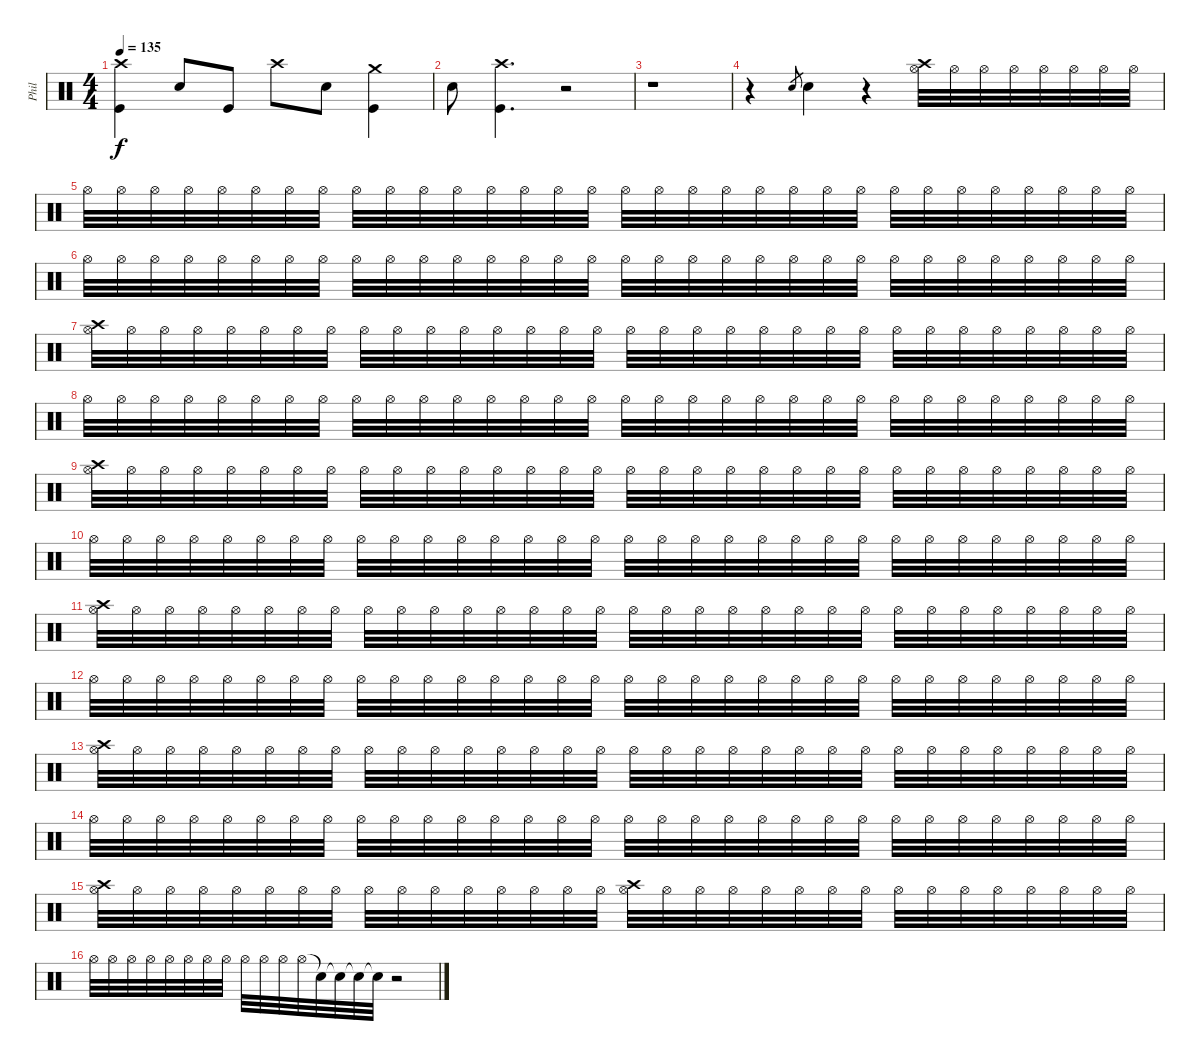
\track ("Phil" "Phil") {instrument percussion}
\staff {score}
\articulation defaults
\ts (4 4)
\tempo 135
\clef neutral
\ks c
("Kick (hit)" "Crash high (hit)").4{dy f} "Snare (hit) 2".8 "Kick (hit)".8 "Crash high (hit)".8 "Snare (hit) 2".8 ("Kick (hit)" "Crash medium (hit)").4 |
"Snare (hit) 2".8 ("Crash high (hit)" "Kick (hit)").4{d} r.2 |
r.1 |
r.4 "Snare (hit) 2".8{gr} "Snare (hit) 2".4 r.4 ("Crash high (hit)" "Hi-Hat (open)").32 "Hi-Hat (open)".32 "Hi-Hat (open)".32 "Hi-Hat (open)".32 "Hi-Hat (open)".32 "Hi-Hat (open)".32 "Hi-Hat (open)".32 "Hi-Hat (open)".32 |
"Hi-Hat (open)".32 "Hi-Hat (open)".32 "Hi-Hat (open)".32 "Hi-Hat (open)".32 "Hi-Hat (open)".32 "Hi-Hat (open)".32 "Hi-Hat (open)".32 "Hi-Hat (open)".32 "Hi-Hat (open)".32 "Hi-Hat (open)".32 "Hi-Hat (open)".32 "Hi-Hat (open)".32 "Hi-Hat (open)".32 "Hi-Hat (open)".32 "Hi-Hat (open)".32 "Hi-Hat (open)".32 "Hi-Hat (open)".32 "Hi-Hat (open)".32 "Hi-Hat (open)".32 "Hi-Hat (open)".32 "Hi-Hat (open)".32 "Hi-Hat (open)".32 "Hi-Hat (open)".32 "Hi-Hat (open)".32 "Hi-Hat (open)".32 "Hi-Hat (open)".32 "Hi-Hat (open)".32 "Hi-Hat (open)".32 "Hi-Hat (open)".32 "Hi-Hat (open)".32 "Hi-Hat (open)".32 "Hi-Hat (open)".32 |
"Hi-Hat (open)".32{volume 5} "Hi-Hat (open)".32{volume 16} "Hi-Hat (open)".32 "Hi-Hat (open)".32 "Hi-Hat (open)".32 "Hi-Hat (open)".32 "Hi-Hat (open)".32 "Hi-Hat (open)".32 "Hi-Hat (open)".32 "Hi-Hat (open)".32 "Hi-Hat (open)".32 "Hi-Hat (open)".32 "Hi-Hat (open)".32 "Hi-Hat (open)".32 "Hi-Hat (open)".32 "Hi-Hat (open)".32 "Hi-Hat (open)".32 "Hi-Hat (open)".32 "Hi-Hat (open)".32 "Hi-Hat (open)".32 "Hi-Hat (open)".32 "Hi-Hat (open)".32 "Hi-Hat (open)".32 "Hi-Hat (open)".32 "Hi-Hat (open)".32 "Hi-Hat (open)".32 "Hi-Hat (open)".32 "Hi-Hat (open)".32 "Hi-Hat (open)".32 "Hi-Hat (open)".32 "Hi-Hat (open)".32 "Hi-Hat (open)".32 |
("Crash high (hit)" "Hi-Hat (open)").32 "Hi-Hat (open)".32 "Hi-Hat (open)".32 "Hi-Hat (open)".32 "Hi-Hat (open)".32 "Hi-Hat (open)".32 "Hi-Hat (open)".32 "Hi-Hat (open)".32 "Hi-Hat (open)".32 "Hi-Hat (open)".32 "Hi-Hat (open)".32 "Hi-Hat (open)".32 "Hi-Hat (open)".32 "Hi-Hat (open)".32 "Hi-Hat (open)".32 "Hi-Hat (open)".32 "Hi-Hat (open)".32 "Hi-Hat (open)".32 "Hi-Hat (open)".32 "Hi-Hat (open)".32 "Hi-Hat (open)".32 "Hi-Hat (open)".32 "Hi-Hat (open)".32 "Hi-Hat (open)".32 "Hi-Hat (open)".32 "Hi-Hat (open)".32 "Hi-Hat (open)".32 "Hi-Hat (open)".32 "Hi-Hat (open)".32 "Hi-Hat (open)".32 "Hi-Hat (open)".32 "Hi-Hat (open)".32 |
"Hi-Hat (open)".32{volume 5} "Hi-Hat (open)".32{volume 16} "Hi-Hat (open)".32 "Hi-Hat (open)".32 "Hi-Hat (open)".32 "Hi-Hat (open)".32 "Hi-Hat (open)".32 "Hi-Hat (open)".32 "Hi-Hat (open)".32 "Hi-Hat (open)".32 "Hi-Hat (open)".32 "Hi-Hat (open)".32 "Hi-Hat (open)".32 "Hi-Hat (open)".32 "Hi-Hat (open)".32 "Hi-Hat (open)".32 "Hi-Hat (open)".32 "Hi-Hat (open)".32 "Hi-Hat (open)".32 "Hi-Hat (open)".32 "Hi-Hat (open)".32 "Hi-Hat (open)".32 "Hi-Hat (open)".32 "Hi-Hat (open)".32 "Hi-Hat (open)".32 "Hi-Hat (open)".32 "Hi-Hat (open)".32 "Hi-Hat (open)".32 "Hi-Hat (open)".32 "Hi-Hat (open)".32 "Hi-Hat (open)".32 "Hi-Hat (open)".32 |
("Crash high (hit)" "Hi-Hat (open)").32 "Hi-Hat (open)".32 "Hi-Hat (open)".32 "Hi-Hat (open)".32 "Hi-Hat (open)".32 "Hi-Hat (open)".32 "Hi-Hat (open)".32 "Hi-Hat (open)".32 "Hi-Hat (open)".32 "Hi-Hat (open)".32 "Hi-Hat (open)".32 "Hi-Hat (open)".32 "Hi-Hat (open)".32 "Hi-Hat (open)".32 "Hi-Hat (open)".32 "Hi-Hat (open)".32 "Hi-Hat (open)".32 "Hi-Hat (open)".32 "Hi-Hat (open)".32 "Hi-Hat (open)".32 "Hi-Hat (open)".32 "Hi-Hat (open)".32 "Hi-Hat (open)".32 "Hi-Hat (open)".32 "Hi-Hat (open)".32 "Hi-Hat (open)".32 "Hi-Hat (open)".32 "Hi-Hat (open)".32 "Hi-Hat (open)".32 "Hi-Hat (open)".32 "Hi-Hat (open)".32 "Hi-Hat (open)".32 |
"Hi-Hat (open)".32{volume 5} "Hi-Hat (open)".32{volume 16} "Hi-Hat (open)".32 "Hi-Hat (open)".32 "Hi-Hat (open)".32 "Hi-Hat (open)".32 "Hi-Hat (open)".32 "Hi-Hat (open)".32 "Hi-Hat (open)".32 "Hi-Hat (open)".32 "Hi-Hat (open)".32 "Hi-Hat (open)".32 "Hi-Hat (open)".32 "Hi-Hat (open)".32 "Hi-Hat (open)".32 "Hi-Hat (open)".32 "Hi-Hat (open)".32 "Hi-Hat (open)".32 "Hi-Hat (open)".32 "Hi-Hat (open)".32 "Hi-Hat (open)".32 "Hi-Hat (open)".32 "Hi-Hat (open)".32 "Hi-Hat (open)".32 "Hi-Hat (open)".32 "Hi-Hat (open)".32 "Hi-Hat (open)".32 "Hi-Hat (open)".32 "Hi-Hat (open)".32 "Hi-Hat (open)".32 "Hi-Hat (open)".32 "Hi-Hat (open)".32 |
("Crash high (hit)" "Hi-Hat (open)").32 "Hi-Hat (open)".32 "Hi-Hat (open)".32 "Hi-Hat (open)".32 "Hi-Hat (open)".32 "Hi-Hat (open)".32 "Hi-Hat (open)".32 "Hi-Hat (open)".32 "Hi-Hat (open)".32 "Hi-Hat (open)".32 "Hi-Hat (open)".32 "Hi-Hat (open)".32 "Hi-Hat (open)".32 "Hi-Hat (open)".32 "Hi-Hat (open)".32 "Hi-Hat (open)".32 "Hi-Hat (open)".32 "Hi-Hat (open)".32 "Hi-Hat (open)".32 "Hi-Hat (open)".32 "Hi-Hat (open)".32 "Hi-Hat (open)".32 "Hi-Hat (open)".32 "Hi-Hat (open)".32 "Hi-Hat (open)".32 "Hi-Hat (open)".32 "Hi-Hat (open)".32 "Hi-Hat (open)".32 "Hi-Hat (open)".32 "Hi-Hat (open)".32 "Hi-Hat (open)".32 "Hi-Hat (open)".32 |
"Hi-Hat (open)".32{volume 5} "Hi-Hat (open)".32{volume 16} "Hi-Hat (open)".32 "Hi-Hat (open)".32 "Hi-Hat (open)".32 "Hi-Hat (open)".32 "Hi-Hat (open)".32 "Hi-Hat (open)".32 "Hi-Hat (open)".32 "Hi-Hat (open)".32 "Hi-Hat (open)".32 "Hi-Hat (open)".32 "Hi-Hat (open)".32 "Hi-Hat (open)".32 "Hi-Hat (open)".32 "Hi-Hat (open)".32 "Hi-Hat (open)".32 "Hi-Hat (open)".32 "Hi-Hat (open)".32 "Hi-Hat (open)".32 "Hi-Hat (open)".32 "Hi-Hat (open)".32 "Hi-Hat (open)".32 "Hi-Hat (open)".32 "Hi-Hat (open)".32 "Hi-Hat (open)".32 "Hi-Hat (open)".32 "Hi-Hat (open)".32 "Hi-Hat (open)".32 "Hi-Hat (open)".32 "Hi-Hat (open)".32 "Hi-Hat (open)".32 |
("Crash high (hit)" "Hi-Hat (open)").32 "Hi-Hat (open)".32 "Hi-Hat (open)".32 "Hi-Hat (open)".32 "Hi-Hat (open)".32 "Hi-Hat (open)".32 "Hi-Hat (open)".32 "Hi-Hat (open)".32 "Hi-Hat (open)".32 "Hi-Hat (open)".32 "Hi-Hat (open)".32 "Hi-Hat (open)".32 "Hi-Hat (open)".32 "Hi-Hat (open)".32 "Hi-Hat (open)".32 "Hi-Hat (open)".32 "Hi-Hat (open)".32 "Hi-Hat (open)".32 "Hi-Hat (open)".32 "Hi-Hat (open)".32 "Hi-Hat (open)".32 "Hi-Hat (open)".32 "Hi-Hat (open)".32 "Hi-Hat (open)".32 "Hi-Hat (open)".32 "Hi-Hat (open)".32 "Hi-Hat (open)".32 "Hi-Hat (open)".32 "Hi-Hat (open)".32 "Hi-Hat (open)".32 "Hi-Hat (open)".32 "Hi-Hat (open)".32 |
"Hi-Hat (open)".32{volume 5} "Hi-Hat (open)".32{volume 16} "Hi-Hat (open)".32 "Hi-Hat (open)".32 "Hi-Hat (open)".32 "Hi-Hat (open)".32 "Hi-Hat (open)".32 "Hi-Hat (open)".32 "Hi-Hat (open)".32 "Hi-Hat (open)".32 "Hi-Hat (open)".32 "Hi-Hat (open)".32 "Hi-Hat (open)".32 "Hi-Hat (open)".32 "Hi-Hat (open)".32 "Hi-Hat (open)".32 "Hi-Hat (open)".32 "Hi-Hat (open)".32 "Hi-Hat (open)".32 "Hi-Hat (open)".32 "Hi-Hat (open)".32 "Hi-Hat (open)".32 "Hi-Hat (open)".32 "Hi-Hat (open)".32 "Hi-Hat (open)".32 "Hi-Hat (open)".32 "Hi-Hat (open)".32 "Hi-Hat (open)".32 "Hi-Hat (open)".32 "Hi-Hat (open)".32 "Hi-Hat (open)".32 "Hi-Hat (open)".32 |
("Crash high (hit)" "Hi-Hat (open)").32 "Hi-Hat (open)".32 "Hi-Hat (open)".32 "Hi-Hat (open)".32 "Hi-Hat (open)".32 "Hi-Hat (open)".32 "Hi-Hat (open)".32 "Hi-Hat (open)".32 "Hi-Hat (open)".32 "Hi-Hat (open)".32 "Hi-Hat (open)".32 "Hi-Hat (open)".32 "Hi-Hat (open)".32 "Hi-Hat (open)".32 "Hi-Hat (open)".32 "Hi-Hat (open)".32 ("Crash high (hit)" "Hi-Hat (open)").32 "Hi-Hat (open)".32 "Hi-Hat (open)".32 "Hi-Hat (open)".32 "Hi-Hat (open)".32 "Hi-Hat (open)".32 "Hi-Hat (open)".32 "Hi-Hat (open)".32 "Hi-Hat (open)".32 "Hi-Hat (open)".32 "Hi-Hat (open)".32 "Hi-Hat (open)".32 "Hi-Hat (open)".32 "Hi-Hat (open)".32 "Hi-Hat (open)".32 "Hi-Hat (open)".32 |
"Hi-Hat (open)".32{volume 3} "Hi-Hat (open)".32 "Hi-Hat (open)".32 "Hi-Hat (open)".32 "Hi-Hat (open)".32 "Hi-Hat (open)".32 "Hi-Hat (open)".32 "Hi-Hat (open)".32 "Hi-Hat (open)".32 "Hi-Hat (open)".32 "Hi-Hat (open)".32 "Hi-Hat (open)".32 "Snare (hit)"{t}.32 "Snare (hit)"{t}.32 "Snare (hit)"{t}.32 "Snare (hit)"{t}.32 r.2
